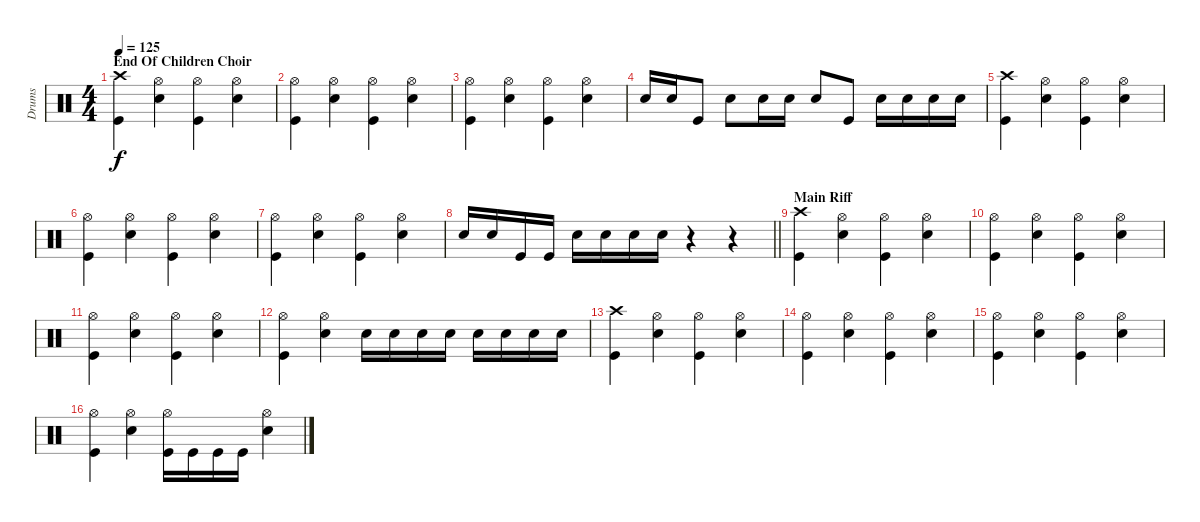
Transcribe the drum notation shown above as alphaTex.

\track ("Drums" "Drums") {instrument percussion}
\staff {score}
\articulation defaults
\ts (4 4)
\section ("" "End Of Children Choir")
\tempo 125
\clef neutral
\ks c
("Crash high (hit)" "Kick (hit)").4{dy f} ("Hi-Hat (open)" "Electric Snare (hit)").4 ("Hi-Hat (open)" "Kick (hit)").4 ("Hi-Hat (open)" "Electric Snare (hit)").4 |
("Hi-Hat (open)" "Kick (hit)").4 ("Hi-Hat (open)" "Electric Snare (hit)").4 ("Hi-Hat (open)" "Kick (hit)").4 ("Hi-Hat (open)" "Electric Snare (hit)").4 |
("Hi-Hat (open)" "Kick (hit)").4 ("Hi-Hat (open)" "Electric Snare (hit)").4 ("Hi-Hat (open)" "Kick (hit)").4 ("Hi-Hat (open)" "Electric Snare (hit)").4 |
"Electric Snare (hit)".16 "Electric Snare (hit)".16 "Kick (hit)".8 "Electric Snare (hit)".8 "Electric Snare (hit)".16 "Electric Snare (hit)".16 "Electric Snare (hit)".8 "Kick (hit)".8 "Electric Snare (hit)".16 "Electric Snare (hit)".16 "Electric Snare (hit)".16 "Electric Snare (hit)".16 |
("Crash high (hit)" "Kick (hit)").4 ("Hi-Hat (open)" "Electric Snare (hit)").4 ("Hi-Hat (open)" "Kick (hit)").4 ("Hi-Hat (open)" "Electric Snare (hit)").4 |
("Hi-Hat (open)" "Kick (hit)").4 ("Hi-Hat (open)" "Electric Snare (hit)").4 ("Hi-Hat (open)" "Kick (hit)").4 ("Hi-Hat (open)" "Electric Snare (hit)").4 |
("Hi-Hat (open)" "Kick (hit)").4 ("Hi-Hat (open)" "Electric Snare (hit)").4 ("Hi-Hat (open)" "Kick (hit)").4 ("Hi-Hat (open)" "Electric Snare (hit)").4 |
\barLineRight lightlight "Electric Snare (hit)".16 "Electric Snare (hit)".16 "Kick (hit)".16 "Kick (hit)".16 "Electric Snare (hit)".16 "Electric Snare (hit)".16 "Electric Snare (hit)".16 "Electric Snare (hit)".16
r.4 r.4 |
\section ("" "Main Riff")
("Crash high (hit)" "Kick (hit)").4 ("Hi-Hat (open)" "Electric Snare (hit)").4 ("Hi-Hat (open)" "Kick (hit)").4 ("Hi-Hat (open)" "Electric Snare (hit)").4 |
("Hi-Hat (open)" "Kick (hit)").4 ("Hi-Hat (open)" "Electric Snare (hit)").4 ("Hi-Hat (open)" "Kick (hit)").4 ("Hi-Hat (open)" "Electric Snare (hit)").4 |
("Hi-Hat (open)" "Kick (hit)").4 ("Hi-Hat (open)" "Electric Snare (hit)").4 ("Hi-Hat (open)" "Kick (hit)").4 ("Hi-Hat (open)" "Electric Snare (hit)").4 |
("Hi-Hat (open)" "Kick (hit)").4 ("Hi-Hat (open)" "Electric Snare (hit)").4 "Electric Snare (hit)".16 "Electric Snare (hit)".16 "Electric Snare (hit)".16 "Electric Snare (hit)".16 "Electric Snare (hit)".16 "Electric Snare (hit)".16 "Electric Snare (hit)".16 "Electric Snare (hit)".16 |
("Crash high (hit)" "Kick (hit)").4 ("Hi-Hat (open)" "Electric Snare (hit)").4 ("Hi-Hat (open)" "Kick (hit)").4 ("Hi-Hat (open)" "Electric Snare (hit)").4 |
("Hi-Hat (open)" "Kick (hit)").4 ("Hi-Hat (open)" "Electric Snare (hit)").4 ("Hi-Hat (open)" "Kick (hit)").4 ("Hi-Hat (open)" "Electric Snare (hit)").4 |
("Hi-Hat (open)" "Kick (hit)").4 ("Hi-Hat (open)" "Electric Snare (hit)").4 ("Hi-Hat (open)" "Kick (hit)").4 ("Hi-Hat (open)" "Electric Snare (hit)").4 |
("Hi-Hat (open)" "Kick (hit)").4 ("Hi-Hat (open)" "Electric Snare (hit)").4 ("Hi-Hat (open)" "Kick (hit)").16 "Kick (hit)".16 "Kick (hit)".16 "Kick (hit)".16 ("Hi-Hat (open)" "Electric Snare (hit)").4
